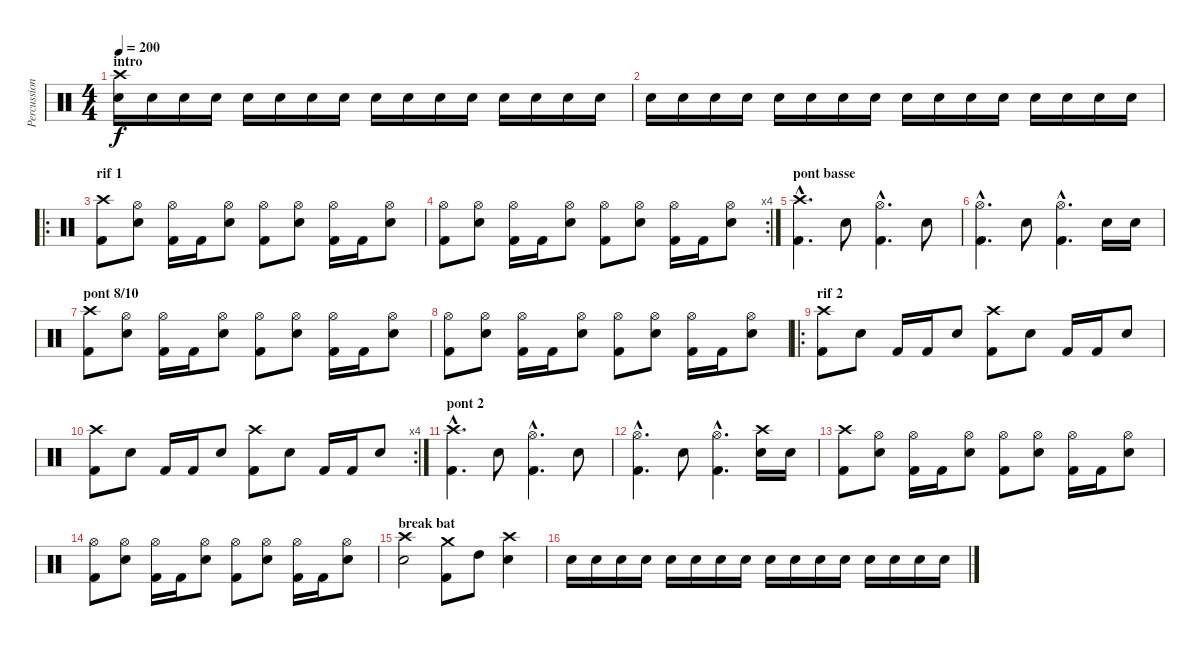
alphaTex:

\track ("Percussions" "Percussion") {instrument percussion}
\staff {score}
\articulation defaults
\ts (4 4)
\section ("" "intro")
\tempo 200
\clef neutral
\ks c
("Crash high (hit)" "Electric Snare (hit)").16{dy f} "Electric Snare (hit)".16 "Electric Snare (hit)".16 "Electric Snare (hit)".16 "Electric Snare (hit)".16 "Electric Snare (hit)".16 "Electric Snare (hit)".16 "Electric Snare (hit)".16 "Electric Snare (hit)".16 "Electric Snare (hit)".16 "Electric Snare (hit)".16 "Electric Snare (hit)".16 "Electric Snare (hit)".16 "Electric Snare (hit)".16 "Electric Snare (hit)".16 "Electric Snare (hit)".16 |
"Electric Snare (hit)".16 "Electric Snare (hit)".16 "Electric Snare (hit)".16 "Electric Snare (hit)".16 "Electric Snare (hit)".16 "Electric Snare (hit)".16 "Electric Snare (hit)".16 "Electric Snare (hit)".16 "Electric Snare (hit)".16 "Electric Snare (hit)".16 "Electric Snare (hit)".16 "Electric Snare (hit)".16 "Electric Snare (hit)".16 "Electric Snare (hit)".16 "Electric Snare (hit)".16 "Electric Snare (hit)".16 |
\ro
\section ("" "rif 1")
("Crash high (hit)" "Kick (hit) 2").8 ("Hi-Hat (open)" "Electric Snare (hit)").8 ("Hi-Hat (open)" "Kick (hit) 2").16 "Kick (hit) 2".16 ("Hi-Hat (open)" "Electric Snare (hit)").8 ("Hi-Hat (open)" "Kick (hit) 2").8 ("Hi-Hat (open)" "Electric Snare (hit)").8 ("Hi-Hat (open)" "Kick (hit) 2").16 "Kick (hit) 2".16 ("Hi-Hat (open)" "Electric Snare (hit)").8 |
\rc 4
("Hi-Hat (open)" "Kick (hit) 2").8 ("Hi-Hat (open)" "Electric Snare (hit)").8 ("Hi-Hat (open)" "Kick (hit) 2").16 "Kick (hit) 2".16 ("Hi-Hat (open)" "Electric Snare (hit)").8 ("Hi-Hat (open)" "Kick (hit) 2").8 ("Hi-Hat (open)" "Electric Snare (hit)").8 ("Hi-Hat (open)" "Kick (hit) 2").16 "Kick (hit) 2".16 ("Hi-Hat (open)" "Electric Snare (hit)").8 |
\section ("" "pont basse")
("Crash high (hit)"{hac} "Kick (hit) 2"{hac}).4{d} "Electric Snare (hit)".8 ("Hi-Hat (open)"{hac} "Kick (hit) 2"{hac}).4{d} "Electric Snare (hit)".8 |
("Hi-Hat (open)"{hac} "Kick (hit) 2"{hac}).4{d} "Electric Snare (hit)".8 ("Hi-Hat (open)"{hac} "Kick (hit) 2"{hac}).4{d} "Electric Snare (hit)".16 "Electric Snare (hit)".16 |
\section ("" "pont 8/10")
("Crash high (hit)" "Kick (hit) 2").8 ("Hi-Hat (open)" "Electric Snare (hit)").8 ("Hi-Hat (open)" "Kick (hit) 2").16 "Kick (hit) 2".16 ("Hi-Hat (open)" "Electric Snare (hit)").8 ("Hi-Hat (open)" "Kick (hit) 2").8 ("Hi-Hat (open)" "Electric Snare (hit)").8 ("Hi-Hat (open)" "Kick (hit) 2").16 "Kick (hit) 2".16 ("Hi-Hat (open)" "Electric Snare (hit)").8 |
("Hi-Hat (open)" "Kick (hit) 2").8 ("Hi-Hat (open)" "Electric Snare (hit)").8 ("Hi-Hat (open)" "Kick (hit) 2").16 "Kick (hit) 2".16 ("Hi-Hat (open)" "Electric Snare (hit)").8 ("Hi-Hat (open)" "Kick (hit) 2").8 ("Hi-Hat (open)" "Electric Snare (hit)").8 ("Hi-Hat (open)" "Kick (hit) 2").16 "Kick (hit) 2".16 ("Hi-Hat (open)" "Electric Snare (hit)").8 |
\ro
\section ("" "rif 2")
("Crash high (hit)" "Kick (hit) 2").8 "Electric Snare (hit)".8 "Kick (hit) 2".16 "Kick (hit) 2".16 "Electric Snare (hit)".8 ("Crash high (hit)" "Kick (hit) 2").8 "Electric Snare (hit)".8 "Kick (hit) 2".16 "Kick (hit) 2".16 "Electric Snare (hit)".8 |
\rc 4
("Crash high (hit)" "Kick (hit) 2").8 "Electric Snare (hit)".8 "Kick (hit) 2".16 "Kick (hit) 2".16 "Electric Snare (hit)".8 ("Crash high (hit)" "Kick (hit) 2").8 "Electric Snare (hit)".8 "Kick (hit) 2".16 "Kick (hit) 2".16 "Electric Snare (hit)".8 |
\section ("" "pont 2")
("Crash high (hit)"{hac} "Kick (hit) 2"{hac}).4{d} "Electric Snare (hit)".8 ("Hi-Hat (open)"{hac} "Kick (hit) 2"{hac}).4{d} "Electric Snare (hit)".8 |
("Hi-Hat (open)"{hac} "Kick (hit) 2"{hac}).4{d} "Electric Snare (hit)".8 ("Hi-Hat (open)"{hac} "Kick (hit) 2"{hac}).4{d} ("Crash high (hit)" "Electric Snare (hit)").16 "Electric Snare (hit)".16 |
("Crash high (hit)" "Kick (hit) 2").8 ("Hi-Hat (open)" "Electric Snare (hit)").8 ("Hi-Hat (open)" "Kick (hit) 2").16 "Kick (hit) 2".16 ("Hi-Hat (open)" "Electric Snare (hit)").8 ("Hi-Hat (open)" "Kick (hit) 2").8 ("Hi-Hat (open)" "Electric Snare (hit)").8 ("Hi-Hat (open)" "Kick (hit) 2").16 "Kick (hit) 2".16 ("Hi-Hat (open)" "Electric Snare (hit)").8 |
("Hi-Hat (open)" "Kick (hit) 2").8 ("Hi-Hat (open)" "Electric Snare (hit)").8 ("Hi-Hat (open)" "Kick (hit) 2").16 "Kick (hit) 2".16 ("Hi-Hat (open)" "Electric Snare (hit)").8 ("Hi-Hat (open)" "Kick (hit) 2").8 ("Hi-Hat (open)" "Electric Snare (hit)").8 ("Hi-Hat (open)" "Kick (hit) 2").16 "Kick (hit) 2".16 ("Hi-Hat (open)" "Electric Snare (hit)").8 |
\section ("" "break bat")
("Crash high (hit)" "Electric Snare (hit)").2 ("Crash medium (hit)" "Kick (hit) 2").8 "High Tom (hit)".8 ("Crash high (hit)" "Electric Snare (hit)").4 |
"Electric Snare (hit)".16 "Electric Snare (hit)".16 "Electric Snare (hit)".16 "Electric Snare (hit)".16 "Electric Snare (hit)".16 "Electric Snare (hit)".16 "Electric Snare (hit)".16 "Electric Snare (hit)".16 "Electric Snare (hit)".16 "Electric Snare (hit)".16 "Electric Snare (hit)".16 "Electric Snare (hit)".16 "Electric Snare (hit)".16 "Electric Snare (hit)".16 "Electric Snare (hit)".16 "Electric Snare (hit)".16
